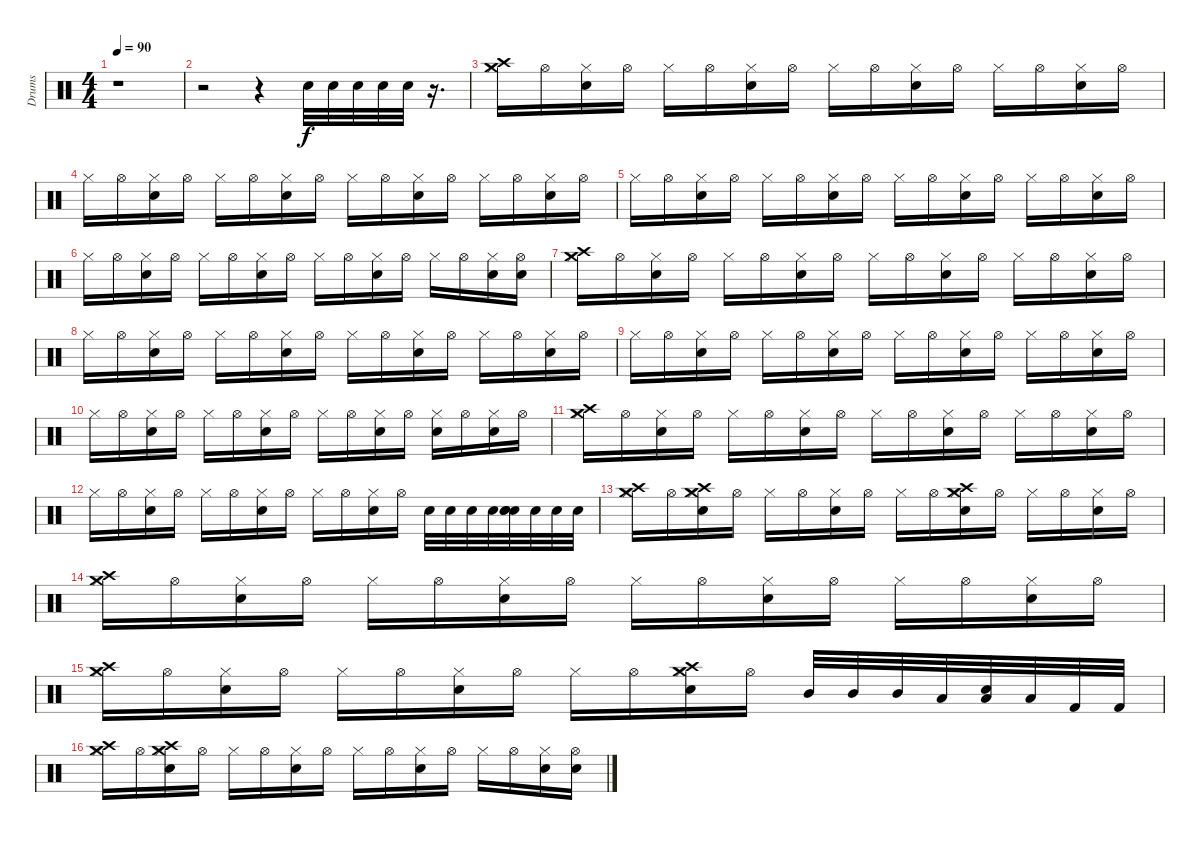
\track ("Drums" "Drums") {instrument percussion}
\staff {score}
\articulation defaults
\ts (4 4)
\tempo 90
\clef neutral
\ks c
r.1{dy f} |
r.2 r.4 "Snare (hit) 2".32 "Snare (hit) 2".32 "Snare (hit) 2".32 "Snare (hit) 2".32 "Snare (hit) 2".32 r.16{d} |
("Crash high (hit)" "Hi-Hat (closed)" "Crash medium (hit)").16 "Hi-Hat (open)".16 ("Snare (hit) 2" "Hi-Hat (closed)").16 "Hi-Hat (open)".16 "Hi-Hat (closed)".16 "Hi-Hat (open)".16 ("Snare (hit) 2" "Hi-Hat (closed)").16 "Hi-Hat (open)".16 "Hi-Hat (closed)".16 "Hi-Hat (open)".16 ("Snare (hit) 2" "Hi-Hat (closed)").16 "Hi-Hat (open)".16 "Hi-Hat (closed)".16 "Hi-Hat (open)".16 ("Snare (hit) 2" "Hi-Hat (closed)").16 "Hi-Hat (open)".16 |
"Hi-Hat (closed)".16 "Hi-Hat (open)".16 ("Snare (hit) 2" "Hi-Hat (closed)").16 "Hi-Hat (open)".16 "Hi-Hat (closed)".16 "Hi-Hat (open)".16 ("Snare (hit) 2" "Hi-Hat (closed)").16 "Hi-Hat (open)".16 "Hi-Hat (closed)".16 "Hi-Hat (open)".16 ("Snare (hit) 2" "Hi-Hat (closed)").16 "Hi-Hat (open)".16 "Hi-Hat (closed)".16 "Hi-Hat (open)".16 ("Snare (hit) 2" "Hi-Hat (closed)").16 "Hi-Hat (open)".16 |
"Hi-Hat (closed)".16 "Hi-Hat (open)".16 ("Snare (hit) 2" "Hi-Hat (closed)").16 "Hi-Hat (open)".16 "Hi-Hat (closed)".16 "Hi-Hat (open)".16 ("Snare (hit) 2" "Hi-Hat (closed)").16 "Hi-Hat (open)".16 "Hi-Hat (closed)".16 "Hi-Hat (open)".16 ("Snare (hit) 2" "Hi-Hat (closed)").16 "Hi-Hat (open)".16 "Hi-Hat (closed)".16 "Hi-Hat (open)".16 ("Snare (hit) 2" "Hi-Hat (closed)").16 "Hi-Hat (open)".16 |
"Hi-Hat (closed)".16 "Hi-Hat (open)".16 ("Snare (hit) 2" "Hi-Hat (closed)").16 "Hi-Hat (open)".16 "Hi-Hat (closed)".16 "Hi-Hat (open)".16 ("Snare (hit) 2" "Hi-Hat (closed)").16 "Hi-Hat (open)".16 "Hi-Hat (closed)".16 "Hi-Hat (open)".16 ("Snare (hit) 2" "Hi-Hat (closed)").16 "Hi-Hat (open)".16 "Hi-Hat (closed)".16 "Hi-Hat (open)".16 ("Snare (hit) 2" "Hi-Hat (closed)").16 ("Snare (hit) 2" "Hi-Hat (open)").16 |
("Crash high (hit)" "Hi-Hat (closed)" "Crash medium (hit)").16 "Hi-Hat (open)".16 ("Snare (hit) 2" "Hi-Hat (closed)").16 "Hi-Hat (open)".16 "Hi-Hat (closed)".16 "Hi-Hat (open)".16 ("Snare (hit) 2" "Hi-Hat (closed)").16 "Hi-Hat (open)".16 "Hi-Hat (closed)".16 "Hi-Hat (open)".16 ("Snare (hit) 2" "Hi-Hat (closed)").16 "Hi-Hat (open)".16 "Hi-Hat (closed)".16 "Hi-Hat (open)".16 ("Snare (hit) 2" "Hi-Hat (closed)").16 "Hi-Hat (open)".16 |
"Hi-Hat (closed)".16 "Hi-Hat (open)".16 ("Snare (hit) 2" "Hi-Hat (closed)").16 "Hi-Hat (open)".16 "Hi-Hat (closed)".16 "Hi-Hat (open)".16 ("Snare (hit) 2" "Hi-Hat (closed)").16 "Hi-Hat (open)".16 "Hi-Hat (closed)".16 "Hi-Hat (open)".16 ("Snare (hit) 2" "Hi-Hat (closed)").16 "Hi-Hat (open)".16 "Hi-Hat (closed)".16 "Hi-Hat (open)".16 ("Snare (hit) 2" "Hi-Hat (closed)").16 "Hi-Hat (open)".16 |
"Hi-Hat (closed)".16 "Hi-Hat (open)".16 ("Snare (hit) 2" "Hi-Hat (closed)").16 "Hi-Hat (open)".16 "Hi-Hat (closed)".16 "Hi-Hat (open)".16 ("Snare (hit) 2" "Hi-Hat (closed)").16 "Hi-Hat (open)".16 "Hi-Hat (closed)".16 "Hi-Hat (open)".16 ("Snare (hit) 2" "Hi-Hat (closed)").16 "Hi-Hat (open)".16 "Hi-Hat (closed)".16 "Hi-Hat (open)".16 ("Snare (hit) 2" "Hi-Hat (closed)").16 "Hi-Hat (open)".16 |
"Hi-Hat (closed)".16 "Hi-Hat (open)".16 ("Snare (hit) 2" "Hi-Hat (closed)").16 "Hi-Hat (open)".16 "Hi-Hat (closed)".16 "Hi-Hat (open)".16 ("Snare (hit) 2" "Hi-Hat (closed)").16 "Hi-Hat (open)".16 "Hi-Hat (closed)".16 "Hi-Hat (open)".16 ("Snare (hit) 2" "Hi-Hat (closed)").16 "Hi-Hat (open)".16 ("Snare (hit) 2" "Hi-Hat (closed)").16 "Hi-Hat (open)".16 ("Snare (hit) 2" "Hi-Hat (closed)").16 "Hi-Hat (open)".16 |
("Crash high (hit)" "Hi-Hat (closed)" "Crash medium (hit)").16 "Hi-Hat (open)".16 ("Snare (hit) 2" "Hi-Hat (closed)").16 "Hi-Hat (open)".16 "Hi-Hat (closed)".16 "Hi-Hat (open)".16 ("Snare (hit) 2" "Hi-Hat (closed)").16 "Hi-Hat (open)".16 "Hi-Hat (closed)".16 "Hi-Hat (open)".16 ("Snare (hit) 2" "Hi-Hat (closed)").16 "Hi-Hat (open)".16 "Hi-Hat (closed)".16 "Hi-Hat (open)".16 ("Snare (hit) 2" "Hi-Hat (closed)").16 "Hi-Hat (open)".16 |
"Hi-Hat (closed)".16 "Hi-Hat (open)".16 ("Snare (hit) 2" "Hi-Hat (closed)").16 "Hi-Hat (open)".16 "Hi-Hat (closed)".16 "Hi-Hat (open)".16 ("Snare (hit) 2" "Hi-Hat (closed)").16 "Hi-Hat (open)".16 "Hi-Hat (closed)".16 "Hi-Hat (open)".16 ("Snare (hit) 2" "Hi-Hat (closed)").16 "Hi-Hat (open)".16 "Snare (hit) 2".32 "Snare (hit) 2".32 "Snare (hit) 2".32 "Snare (hit) 2".32 ("Snare (hit) 2" "Snare (hit) 2" "Snare (hit) 2").32 "Snare (hit) 2".32 "Snare (hit) 2".32 "Snare (hit) 2".32 |
("Crash high (hit)" "Hi-Hat (closed)" "Crash medium (hit)").16 "Hi-Hat (open)".16 ("Crash high (hit)" "Hi-Hat (closed)" "Snare (hit) 2" "Crash medium (hit)").16 "Hi-Hat (open)".16 "Hi-Hat (closed)".16 "Hi-Hat (open)".16 ("Snare (hit) 2" "Hi-Hat (closed)").16 "Hi-Hat (open)".16 "Hi-Hat (closed)".16 "Hi-Hat (open)".16 ("Snare (hit) 2" "Hi-Hat (closed)" "Crash medium (hit)" "Crash high (hit)").16 "Hi-Hat (open)".16 "Hi-Hat (closed)".16 "Hi-Hat (open)".16 ("Snare (hit) 2" "Hi-Hat (closed)").16 "Hi-Hat (open)".16 |
("Crash high (hit)" "Hi-Hat (closed)" "Crash medium (hit)").16 "Hi-Hat (open)".16 ("Snare (hit) 2" "Hi-Hat (closed)").16 "Hi-Hat (open)".16 "Hi-Hat (closed)".16 "Hi-Hat (open)".16 ("Snare (hit) 2" "Hi-Hat (closed)").16 "Hi-Hat (open)".16 "Hi-Hat (closed)".16 "Hi-Hat (open)".16 ("Snare (hit) 2" "Hi-Hat (closed)").16 "Hi-Hat (open)".16 "Hi-Hat (closed)".16 "Hi-Hat (open)".16 ("Snare (hit) 2" "Hi-Hat (closed)").16 "Hi-Hat (open)".16 |
("Crash high (hit)" "Hi-Hat (closed)" "Crash medium (hit)").16 "Hi-Hat (open)".16 ("Snare (hit) 2" "Hi-Hat (closed)").16 "Hi-Hat (open)".16 "Hi-Hat (closed)".16 "Hi-Hat (open)".16 ("Snare (hit) 2" "Hi-Hat (closed)").16 "Hi-Hat (open)".16 "Hi-Hat (closed)".16 "Hi-Hat (open)".16 ("Snare (hit) 2" "Hi-Hat (closed)" "Crash medium (hit)" "Crash high (hit)").16 "Hi-Hat (open)".16 "Mid Tom (hit)".32 "Mid Tom (hit)".32 "Mid Tom (hit)".32 "Low Tom (hit)".32 ("Snare (hit) 2" "Low Tom (hit)").32 "Low Tom (hit)".32 "Kick (hit) 2".32 "Kick (hit) 2".32 |
("Crash high (hit)" "Hi-Hat (closed)" "Crash medium (hit)").16 "Hi-Hat (open)".16 ("Snare (hit) 2" "Hi-Hat (closed)" "Crash high (hit)" "Crash medium (hit)").16 "Hi-Hat (open)".16 "Hi-Hat (closed)".16 "Hi-Hat (open)".16 ("Snare (hit) 2" "Hi-Hat (closed)").16 "Hi-Hat (open)".16 "Hi-Hat (closed)".16 "Hi-Hat (open)".16 ("Snare (hit) 2" "Hi-Hat (closed)").16 "Hi-Hat (open)".16 "Hi-Hat (closed)".16 "Hi-Hat (open)".16 ("Snare (hit) 2" "Hi-Hat (closed)").16 ("Snare (hit) 2" "Hi-Hat (open)").16
